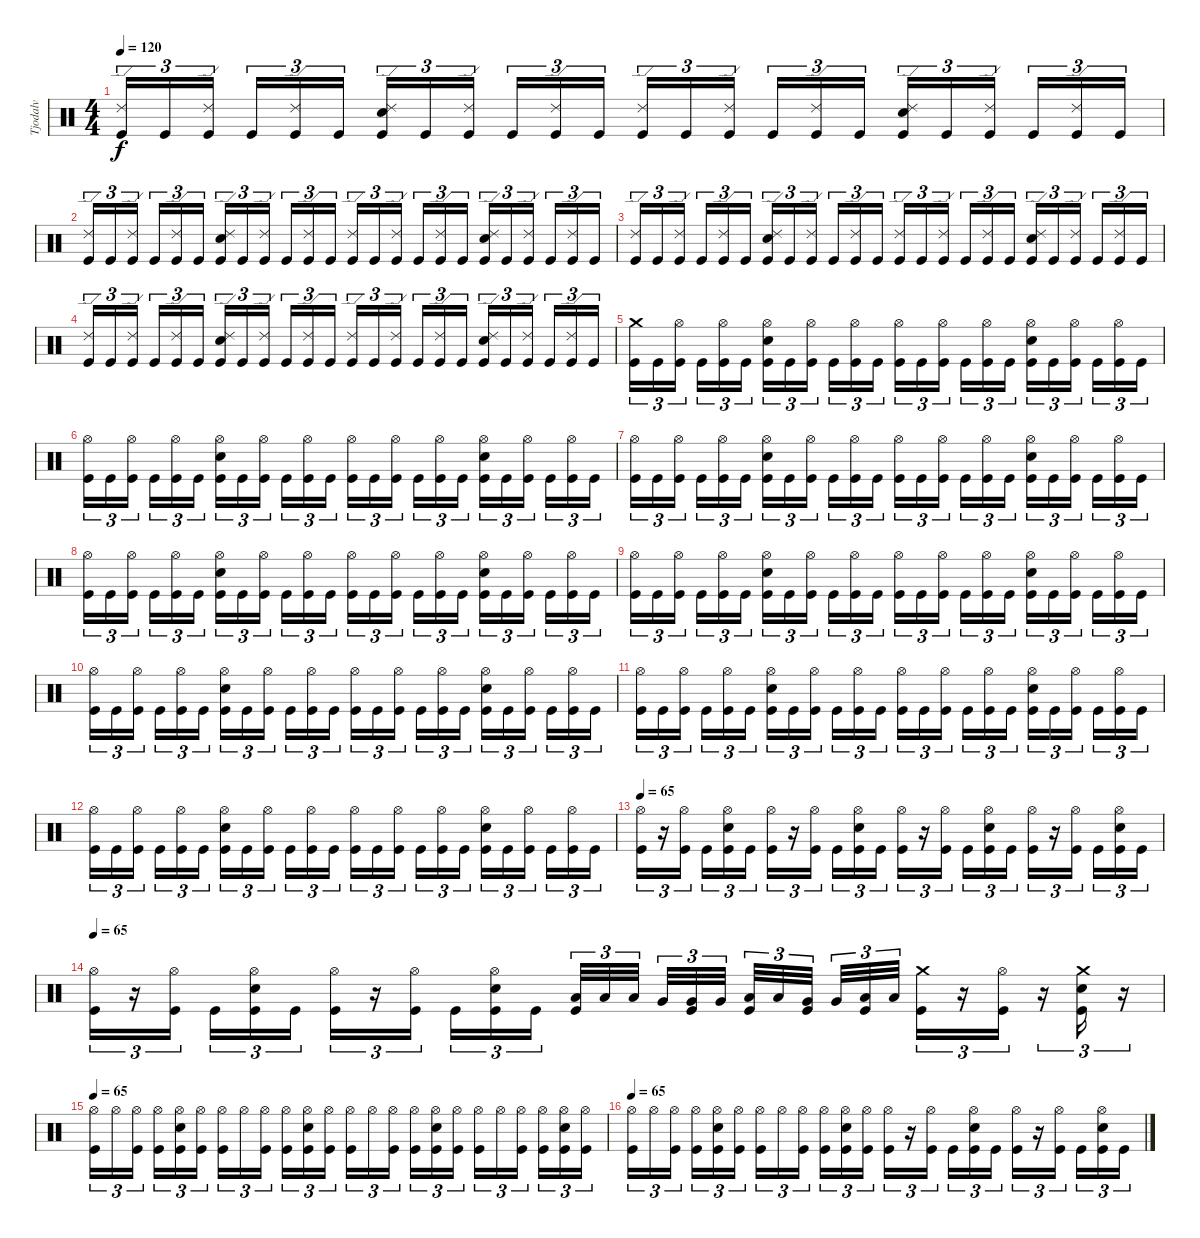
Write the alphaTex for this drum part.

\track ("Tjodalv" "Tjodalv") {instrument percussion}
\staff {score}
\articulation defaults
\ts (4 4)
\tempo 120
\clef neutral
\ks c
("Ride (edge) 2" "Kick (hit)").16{tu (3 2) dy f} "Kick (hit)".16{tu (3 2)} ("Ride (edge) 2" "Kick (hit)").16{tu (3 2)} "Kick (hit)".16{tu (3 2)} ("Ride (edge) 2" "Kick (hit)").16{tu (3 2)} "Kick (hit)".16{tu (3 2)} ("Ride (edge) 2" "Snare (hit) 2" "Kick (hit)").16{tu (3 2)} "Kick (hit)".16{tu (3 2)} ("Ride (edge) 2" "Kick (hit)").16{tu (3 2)} "Kick (hit)".16{tu (3 2)} ("Ride (edge) 2" "Kick (hit)").16{tu (3 2)} "Kick (hit)".16{tu (3 2)} ("Ride (edge) 2" "Kick (hit)").16{tu (3 2)} "Kick (hit)".16{tu (3 2)} ("Ride (edge) 2" "Kick (hit)").16{tu (3 2)} "Kick (hit)".16{tu (3 2)} ("Ride (edge) 2" "Kick (hit)").16{tu (3 2)} "Kick (hit)".16{tu (3 2)} ("Ride (edge) 2" "Snare (hit) 2" "Kick (hit)").16{tu (3 2)} "Kick (hit)".16{tu (3 2)} ("Ride (edge) 2" "Kick (hit)").16{tu (3 2)} "Kick (hit)".16{tu (3 2)} ("Ride (edge) 2" "Kick (hit)").16{tu (3 2)} "Kick (hit)".16{tu (3 2)} |
("Ride (edge) 2" "Kick (hit)").16{tu (3 2)} "Kick (hit)".16{tu (3 2)} ("Ride (edge) 2" "Kick (hit)").16{tu (3 2)} "Kick (hit)".16{tu (3 2)} ("Ride (edge) 2" "Kick (hit)").16{tu (3 2)} "Kick (hit)".16{tu (3 2)} ("Ride (edge) 2" "Snare (hit) 2" "Kick (hit)").16{tu (3 2)} "Kick (hit)".16{tu (3 2)} ("Ride (edge) 2" "Kick (hit)").16{tu (3 2)} "Kick (hit)".16{tu (3 2)} ("Ride (edge) 2" "Kick (hit)").16{tu (3 2)} "Kick (hit)".16{tu (3 2)} ("Ride (edge) 2" "Kick (hit)").16{tu (3 2)} "Kick (hit)".16{tu (3 2)} ("Ride (edge) 2" "Kick (hit)").16{tu (3 2)} "Kick (hit)".16{tu (3 2)} ("Ride (edge) 2" "Kick (hit)").16{tu (3 2)} "Kick (hit)".16{tu (3 2)} ("Ride (edge) 2" "Snare (hit) 2" "Kick (hit)").16{tu (3 2)} "Kick (hit)".16{tu (3 2)} ("Ride (edge) 2" "Kick (hit)").16{tu (3 2)} "Kick (hit)".16{tu (3 2)} ("Ride (edge) 2" "Kick (hit)").16{tu (3 2)} "Kick (hit)".16{tu (3 2)} |
("Ride (edge) 2" "Kick (hit)").16{tu (3 2)} "Kick (hit)".16{tu (3 2)} ("Ride (edge) 2" "Kick (hit)").16{tu (3 2)} "Kick (hit)".16{tu (3 2)} ("Ride (edge) 2" "Kick (hit)").16{tu (3 2)} "Kick (hit)".16{tu (3 2)} ("Ride (edge) 2" "Snare (hit) 2" "Kick (hit)").16{tu (3 2)} "Kick (hit)".16{tu (3 2)} ("Ride (edge) 2" "Kick (hit)").16{tu (3 2)} "Kick (hit)".16{tu (3 2)} ("Ride (edge) 2" "Kick (hit)").16{tu (3 2)} "Kick (hit)".16{tu (3 2)} ("Ride (edge) 2" "Kick (hit)").16{tu (3 2)} "Kick (hit)".16{tu (3 2)} ("Ride (edge) 2" "Kick (hit)").16{tu (3 2)} "Kick (hit)".16{tu (3 2)} ("Ride (edge) 2" "Kick (hit)").16{tu (3 2)} "Kick (hit)".16{tu (3 2)} ("Ride (edge) 2" "Snare (hit) 2" "Kick (hit)").16{tu (3 2)} "Kick (hit)".16{tu (3 2)} ("Ride (edge) 2" "Kick (hit)").16{tu (3 2)} "Kick (hit)".16{tu (3 2)} ("Ride (edge) 2" "Kick (hit)").16{tu (3 2)} "Kick (hit)".16{tu (3 2)} |
("Ride (edge) 2" "Kick (hit)").16{tu (3 2)} "Kick (hit)".16{tu (3 2)} ("Ride (edge) 2" "Kick (hit)").16{tu (3 2)} "Kick (hit)".16{tu (3 2)} ("Ride (edge) 2" "Kick (hit)").16{tu (3 2)} "Kick (hit)".16{tu (3 2)} ("Ride (edge) 2" "Snare (hit) 2" "Kick (hit)").16{tu (3 2)} "Kick (hit)".16{tu (3 2)} ("Ride (edge) 2" "Kick (hit)").16{tu (3 2)} "Kick (hit)".16{tu (3 2)} ("Ride (edge) 2" "Kick (hit)").16{tu (3 2)} "Kick (hit)".16{tu (3 2)} ("Ride (edge) 2" "Kick (hit)").16{tu (3 2)} "Kick (hit)".16{tu (3 2)} ("Ride (edge) 2" "Kick (hit)").16{tu (3 2)} "Kick (hit)".16{tu (3 2)} ("Ride (edge) 2" "Kick (hit)").16{tu (3 2)} "Kick (hit)".16{tu (3 2)} ("Ride (edge) 2" "Snare (hit) 2" "Kick (hit)").16{tu (3 2)} "Kick (hit)".16{tu (3 2)} ("Ride (edge) 2" "Kick (hit)").16{tu (3 2)} "Kick (hit)".16{tu (3 2)} ("Ride (edge) 2" "Kick (hit)").16{tu (3 2)} "Kick (hit)".16{tu (3 2)} |
("Crash medium (hit)" "Kick (hit)").16{tu (3 2)} "Kick (hit)".16{tu (3 2)} ("Hi-Hat (open)" "Kick (hit)").16{tu (3 2)} "Kick (hit)".16{tu (3 2)} ("Hi-Hat (open)" "Kick (hit)").16{tu (3 2)} "Kick (hit)".16{tu (3 2)} ("Hi-Hat (open)" "Snare (hit) 2" "Kick (hit)").16{tu (3 2)} "Kick (hit)".16{tu (3 2)} ("Hi-Hat (open)" "Kick (hit)").16{tu (3 2)} "Kick (hit)".16{tu (3 2)} ("Hi-Hat (open)" "Kick (hit)").16{tu (3 2)} "Kick (hit)".16{tu (3 2)} ("Hi-Hat (open)" "Kick (hit)").16{tu (3 2)} "Kick (hit)".16{tu (3 2)} ("Hi-Hat (open)" "Kick (hit)").16{tu (3 2)} "Kick (hit)".16{tu (3 2)} ("Hi-Hat (open)" "Kick (hit)").16{tu (3 2)} "Kick (hit)".16{tu (3 2)} ("Hi-Hat (open)" "Snare (hit) 2" "Kick (hit)").16{tu (3 2)} "Kick (hit)".16{tu (3 2)} ("Hi-Hat (open)" "Kick (hit)").16{tu (3 2)} "Kick (hit)".16{tu (3 2)} ("Hi-Hat (open)" "Kick (hit)").16{tu (3 2)} "Kick (hit)".16{tu (3 2)} |
("Hi-Hat (open)" "Kick (hit)").16{tu (3 2)} "Kick (hit)".16{tu (3 2)} ("Hi-Hat (open)" "Kick (hit)").16{tu (3 2)} "Kick (hit)".16{tu (3 2)} ("Hi-Hat (open)" "Kick (hit)").16{tu (3 2)} "Kick (hit)".16{tu (3 2)} ("Hi-Hat (open)" "Snare (hit) 2" "Kick (hit)").16{tu (3 2)} "Kick (hit)".16{tu (3 2)} ("Hi-Hat (open)" "Kick (hit)").16{tu (3 2)} "Kick (hit)".16{tu (3 2)} ("Hi-Hat (open)" "Kick (hit)").16{tu (3 2)} "Kick (hit)".16{tu (3 2)} ("Hi-Hat (open)" "Kick (hit)").16{tu (3 2)} "Kick (hit)".16{tu (3 2)} ("Hi-Hat (open)" "Kick (hit)").16{tu (3 2)} "Kick (hit)".16{tu (3 2)} ("Hi-Hat (open)" "Kick (hit)").16{tu (3 2)} "Kick (hit)".16{tu (3 2)} ("Hi-Hat (open)" "Snare (hit) 2" "Kick (hit)").16{tu (3 2)} "Kick (hit)".16{tu (3 2)} ("Hi-Hat (open)" "Kick (hit)").16{tu (3 2)} "Kick (hit)".16{tu (3 2)} ("Hi-Hat (open)" "Kick (hit)").16{tu (3 2)} "Kick (hit)".16{tu (3 2)} |
("Hi-Hat (open)" "Kick (hit)").16{tu (3 2)} "Kick (hit)".16{tu (3 2)} ("Hi-Hat (open)" "Kick (hit)").16{tu (3 2)} "Kick (hit)".16{tu (3 2)} ("Hi-Hat (open)" "Kick (hit)").16{tu (3 2)} "Kick (hit)".16{tu (3 2)} ("Hi-Hat (open)" "Snare (hit) 2" "Kick (hit)").16{tu (3 2)} "Kick (hit)".16{tu (3 2)} ("Hi-Hat (open)" "Kick (hit)").16{tu (3 2)} "Kick (hit)".16{tu (3 2)} ("Hi-Hat (open)" "Kick (hit)").16{tu (3 2)} "Kick (hit)".16{tu (3 2)} ("Hi-Hat (open)" "Kick (hit)").16{tu (3 2)} "Kick (hit)".16{tu (3 2)} ("Hi-Hat (open)" "Kick (hit)").16{tu (3 2)} "Kick (hit)".16{tu (3 2)} ("Hi-Hat (open)" "Kick (hit)").16{tu (3 2)} "Kick (hit)".16{tu (3 2)} ("Hi-Hat (open)" "Snare (hit) 2" "Kick (hit)").16{tu (3 2)} "Kick (hit)".16{tu (3 2)} ("Hi-Hat (open)" "Kick (hit)").16{tu (3 2)} "Kick (hit)".16{tu (3 2)} ("Hi-Hat (open)" "Kick (hit)").16{tu (3 2)} "Kick (hit)".16{tu (3 2)} |
("Hi-Hat (open)" "Kick (hit)").16{tu (3 2)} "Kick (hit)".16{tu (3 2)} ("Hi-Hat (open)" "Kick (hit)").16{tu (3 2)} "Kick (hit)".16{tu (3 2)} ("Hi-Hat (open)" "Kick (hit)").16{tu (3 2)} "Kick (hit)".16{tu (3 2)} ("Hi-Hat (open)" "Snare (hit) 2" "Kick (hit)").16{tu (3 2)} "Kick (hit)".16{tu (3 2)} ("Hi-Hat (open)" "Kick (hit)").16{tu (3 2)} "Kick (hit)".16{tu (3 2)} ("Hi-Hat (open)" "Kick (hit)").16{tu (3 2)} "Kick (hit)".16{tu (3 2)} ("Hi-Hat (open)" "Kick (hit)").16{tu (3 2)} "Kick (hit)".16{tu (3 2)} ("Hi-Hat (open)" "Kick (hit)").16{tu (3 2)} "Kick (hit)".16{tu (3 2)} ("Hi-Hat (open)" "Kick (hit)").16{tu (3 2)} "Kick (hit)".16{tu (3 2)} ("Hi-Hat (open)" "Snare (hit) 2" "Kick (hit)").16{tu (3 2)} "Kick (hit)".16{tu (3 2)} ("Hi-Hat (open)" "Kick (hit)").16{tu (3 2)} "Kick (hit)".16{tu (3 2)} ("Hi-Hat (open)" "Kick (hit)").16{tu (3 2)} "Kick (hit)".16{tu (3 2)} |
("Hi-Hat (open)" "Kick (hit)").16{tu (3 2)} "Kick (hit)".16{tu (3 2)} ("Hi-Hat (open)" "Kick (hit)").16{tu (3 2)} "Kick (hit)".16{tu (3 2)} ("Hi-Hat (open)" "Kick (hit)").16{tu (3 2)} "Kick (hit)".16{tu (3 2)} ("Hi-Hat (open)" "Snare (hit) 2" "Kick (hit)").16{tu (3 2)} "Kick (hit)".16{tu (3 2)} ("Hi-Hat (open)" "Kick (hit)").16{tu (3 2)} "Kick (hit)".16{tu (3 2)} ("Hi-Hat (open)" "Kick (hit)").16{tu (3 2)} "Kick (hit)".16{tu (3 2)} ("Hi-Hat (open)" "Kick (hit)").16{tu (3 2)} "Kick (hit)".16{tu (3 2)} ("Hi-Hat (open)" "Kick (hit)").16{tu (3 2)} "Kick (hit)".16{tu (3 2)} ("Hi-Hat (open)" "Kick (hit)").16{tu (3 2)} "Kick (hit)".16{tu (3 2)} ("Hi-Hat (open)" "Snare (hit) 2" "Kick (hit)").16{tu (3 2)} "Kick (hit)".16{tu (3 2)} ("Hi-Hat (open)" "Kick (hit)").16{tu (3 2)} "Kick (hit)".16{tu (3 2)} ("Hi-Hat (open)" "Kick (hit)").16{tu (3 2)} "Kick (hit)".16{tu (3 2)} |
("Hi-Hat (open)" "Kick (hit)").16{tu (3 2)} "Kick (hit)".16{tu (3 2)} ("Hi-Hat (open)" "Kick (hit)").16{tu (3 2)} "Kick (hit)".16{tu (3 2)} ("Hi-Hat (open)" "Kick (hit)").16{tu (3 2)} "Kick (hit)".16{tu (3 2)} ("Hi-Hat (open)" "Snare (hit) 2" "Kick (hit)").16{tu (3 2)} "Kick (hit)".16{tu (3 2)} ("Hi-Hat (open)" "Kick (hit)").16{tu (3 2)} "Kick (hit)".16{tu (3 2)} ("Hi-Hat (open)" "Kick (hit)").16{tu (3 2)} "Kick (hit)".16{tu (3 2)} ("Hi-Hat (open)" "Kick (hit)").16{tu (3 2)} "Kick (hit)".16{tu (3 2)} ("Hi-Hat (open)" "Kick (hit)").16{tu (3 2)} "Kick (hit)".16{tu (3 2)} ("Hi-Hat (open)" "Kick (hit)").16{tu (3 2)} "Kick (hit)".16{tu (3 2)} ("Hi-Hat (open)" "Snare (hit) 2" "Kick (hit)").16{tu (3 2)} "Kick (hit)".16{tu (3 2)} ("Hi-Hat (open)" "Kick (hit)").16{tu (3 2)} "Kick (hit)".16{tu (3 2)} ("Hi-Hat (open)" "Kick (hit)").16{tu (3 2)} "Kick (hit)".16{tu (3 2)} |
("Hi-Hat (open)" "Kick (hit)").16{tu (3 2)} "Kick (hit)".16{tu (3 2)} ("Hi-Hat (open)" "Kick (hit)").16{tu (3 2)} "Kick (hit)".16{tu (3 2)} ("Hi-Hat (open)" "Kick (hit)").16{tu (3 2)} "Kick (hit)".16{tu (3 2)} ("Hi-Hat (open)" "Snare (hit) 2" "Kick (hit)").16{tu (3 2)} "Kick (hit)".16{tu (3 2)} ("Hi-Hat (open)" "Kick (hit)").16{tu (3 2)} "Kick (hit)".16{tu (3 2)} ("Hi-Hat (open)" "Kick (hit)").16{tu (3 2)} "Kick (hit)".16{tu (3 2)} ("Hi-Hat (open)" "Kick (hit)").16{tu (3 2)} "Kick (hit)".16{tu (3 2)} ("Hi-Hat (open)" "Kick (hit)").16{tu (3 2)} "Kick (hit)".16{tu (3 2)} ("Hi-Hat (open)" "Kick (hit)").16{tu (3 2)} "Kick (hit)".16{tu (3 2)} ("Hi-Hat (open)" "Snare (hit) 2" "Kick (hit)").16{tu (3 2)} "Kick (hit)".16{tu (3 2)} ("Hi-Hat (open)" "Kick (hit)").16{tu (3 2)} "Kick (hit)".16{tu (3 2)} ("Hi-Hat (open)" "Kick (hit)").16{tu (3 2)} "Kick (hit)".16{tu (3 2)} |
("Hi-Hat (open)" "Kick (hit)").16{tu (3 2)} "Kick (hit)".16{tu (3 2)} ("Hi-Hat (open)" "Kick (hit)").16{tu (3 2)} "Kick (hit)".16{tu (3 2)} ("Hi-Hat (open)" "Kick (hit)").16{tu (3 2)} "Kick (hit)".16{tu (3 2)} ("Hi-Hat (open)" "Snare (hit) 2" "Kick (hit)").16{tu (3 2)} "Kick (hit)".16{tu (3 2)} ("Hi-Hat (open)" "Kick (hit)").16{tu (3 2)} "Kick (hit)".16{tu (3 2)} ("Hi-Hat (open)" "Kick (hit)").16{tu (3 2)} "Kick (hit)".16{tu (3 2)} ("Hi-Hat (open)" "Kick (hit)").16{tu (3 2)} "Kick (hit)".16{tu (3 2)} ("Hi-Hat (open)" "Kick (hit)").16{tu (3 2)} "Kick (hit)".16{tu (3 2)} ("Hi-Hat (open)" "Kick (hit)").16{tu (3 2)} "Kick (hit)".16{tu (3 2)} ("Hi-Hat (open)" "Snare (hit) 2" "Kick (hit)").16{tu (3 2)} "Kick (hit)".16{tu (3 2)} ("Hi-Hat (open)" "Kick (hit)").16{tu (3 2)} "Kick (hit)".16{tu (3 2)} ("Hi-Hat (open)" "Kick (hit)").16{tu (3 2)} "Kick (hit)".16{tu (3 2)} |
\tempo 65
("Hi-Hat (open)" "Kick (hit)").16{tu (3 2)} r.16{tu (3 2)} ("Hi-Hat (open)" "Kick (hit)").16{tu (3 2)} "Kick (hit)".16{tu (3 2)} ("Hi-Hat (open)" "Snare (hit) 2" "Kick (hit)").16{tu (3 2)} "Kick (hit)".16{tu (3 2)} ("Hi-Hat (open)" "Kick (hit)").16{tu (3 2)} r.16{tu (3 2)} ("Hi-Hat (open)" "Kick (hit)").16{tu (3 2)} "Kick (hit)".16{tu (3 2)} ("Hi-Hat (open)" "Snare (hit) 2" "Kick (hit)").16{tu (3 2)} "Kick (hit)".16{tu (3 2)} ("Hi-Hat (open)" "Kick (hit)").16{tu (3 2)} r.16{tu (3 2)} ("Hi-Hat (open)" "Kick (hit)").16{tu (3 2)} "Kick (hit)".16{tu (3 2)} ("Hi-Hat (open)" "Snare (hit) 2" "Kick (hit)").16{tu (3 2)} "Kick (hit)".16{tu (3 2)} ("Hi-Hat (open)" "Kick (hit)").16{tu (3 2)} r.16{tu (3 2)} ("Hi-Hat (open)" "Kick (hit)").16{tu (3 2)} "Kick (hit)".16{tu (3 2)} ("Hi-Hat (open)" "Snare (hit) 2" "Kick (hit)").16{tu (3 2)} "Kick (hit)".16{tu (3 2)} |
\tempo 65
("Hi-Hat (open)" "Kick (hit)").16{tu (3 2)} r.16{tu (3 2)} ("Hi-Hat (open)" "Kick (hit)").16{tu (3 2)} "Kick (hit)".16{tu (3 2)} ("Hi-Hat (open)" "Snare (hit) 2" "Kick (hit)").16{tu (3 2)} "Kick (hit)".16{tu (3 2)} ("Hi-Hat (open)" "Kick (hit)").16{tu (3 2)} r.16{tu (3 2)} ("Hi-Hat (open)" "Kick (hit)").16{tu (3 2)} "Kick (hit)".16{tu (3 2)} ("Hi-Hat (open)" "Snare (hit) 2" "Kick (hit)").16{tu (3 2)} "Kick (hit)".16{tu (3 2)} ("Low Tom (hit)" "Kick (hit)").32{tu (3 2)} "Low Tom (hit)".32{tu (3 2)} "Low Tom (hit)".32{tu (3 2)} "Very Low Tom (hit)".32{tu (3 2)} ("Very Low Tom (hit)" "Kick (hit)").32{tu (3 2)} "Very Low Tom (hit)".32{tu (3 2)} ("Low Tom (hit)" "Kick (hit)").32{tu (3 2)} "Low Tom (hit)".32{tu (3 2)} ("Very Low Tom (hit)" "Kick (hit)").32{tu (3 2)} "Very Low Tom (hit)".32{tu (3 2)} ("Low Floor Tom (hit)" "Kick (hit)").32{tu (3 2)} "Low Floor Tom (hit)".32{tu (3 2)} ("Crash medium (hit)" "Kick (hit)").16{tu (3 2)} r.16{tu (3 2)} ("Hi-Hat (open)" "Kick (hit)").16{tu (3 2)} r.16{tu (3 2)} ("Crash medium (hit)" "Snare (hit) 2" "Kick (hit)").16{tu (3 2)} r.16{tu (3 2)} |
\tempo 65
("Hi-Hat (open)" "Kick (hit)").16{tu (3 2)} "Hi-Hat (open)".16{tu (3 2)} ("Hi-Hat (open)" "Kick (hit)").16{tu (3 2)} ("Hi-Hat (open)" "Kick (hit)").16{tu (3 2)} ("Hi-Hat (open)" "Snare (hit) 2" "Kick (hit)").16{tu (3 2)} ("Hi-Hat (open)" "Kick (hit)").16{tu (3 2)} ("Hi-Hat (open)" "Kick (hit)").16{tu (3 2)} "Hi-Hat (open)".16{tu (3 2)} ("Hi-Hat (open)" "Kick (hit)").16{tu (3 2)} ("Hi-Hat (open)" "Kick (hit)").16{tu (3 2)} ("Hi-Hat (open)" "Snare (hit) 2" "Kick (hit)").16{tu (3 2)} ("Hi-Hat (open)" "Kick (hit)").16{tu (3 2)} ("Hi-Hat (open)" "Kick (hit)").16{tu (3 2)} "Hi-Hat (open)".16{tu (3 2)} ("Hi-Hat (open)" "Kick (hit)").16{tu (3 2)} ("Hi-Hat (open)" "Kick (hit)").16{tu (3 2)} ("Hi-Hat (open)" "Snare (hit) 2" "Kick (hit)").16{tu (3 2)} ("Hi-Hat (open)" "Kick (hit)").16{tu (3 2)} ("Hi-Hat (open)" "Kick (hit)").16{tu (3 2)} "Hi-Hat (open)".16{tu (3 2)} ("Hi-Hat (open)" "Kick (hit)").16{tu (3 2)} ("Hi-Hat (open)" "Kick (hit)").16{tu (3 2)} ("Hi-Hat (open)" "Snare (hit) 2" "Kick (hit)").16{tu (3 2)} ("Hi-Hat (open)" "Kick (hit)").16{tu (3 2)} |
\tempo 65
("Hi-Hat (open)" "Kick (hit)").16{tu (3 2)} "Hi-Hat (open)".16{tu (3 2)} ("Hi-Hat (open)" "Kick (hit)").16{tu (3 2)} ("Hi-Hat (open)" "Kick (hit)").16{tu (3 2)} ("Hi-Hat (open)" "Snare (hit) 2" "Kick (hit)").16{tu (3 2)} ("Hi-Hat (open)" "Kick (hit)").16{tu (3 2)} ("Hi-Hat (open)" "Kick (hit)").16{tu (3 2)} "Hi-Hat (open)".16{tu (3 2)} ("Hi-Hat (open)" "Kick (hit)").16{tu (3 2)} ("Hi-Hat (open)" "Kick (hit)").16{tu (3 2)} ("Hi-Hat (open)" "Snare (hit) 2" "Kick (hit)").16{tu (3 2)} ("Hi-Hat (open)" "Kick (hit)").16{tu (3 2)} ("Hi-Hat (open)" "Kick (hit)").16{tu (3 2)} r.16{tu (3 2)} ("Hi-Hat (open)" "Kick (hit)").16{tu (3 2)} "Kick (hit)".16{tu (3 2)} ("Hi-Hat (open)" "Snare (hit) 2" "Kick (hit)").16{tu (3 2)} "Kick (hit)".16{tu (3 2)} ("Hi-Hat (open)" "Kick (hit)").16{tu (3 2)} r.16{tu (3 2)} ("Hi-Hat (open)" "Kick (hit)").16{tu (3 2)} "Kick (hit)".16{tu (3 2)} ("Hi-Hat (open)" "Snare (hit) 2" "Kick (hit)").16{tu (3 2)} "Kick (hit)".16{tu (3 2)}
